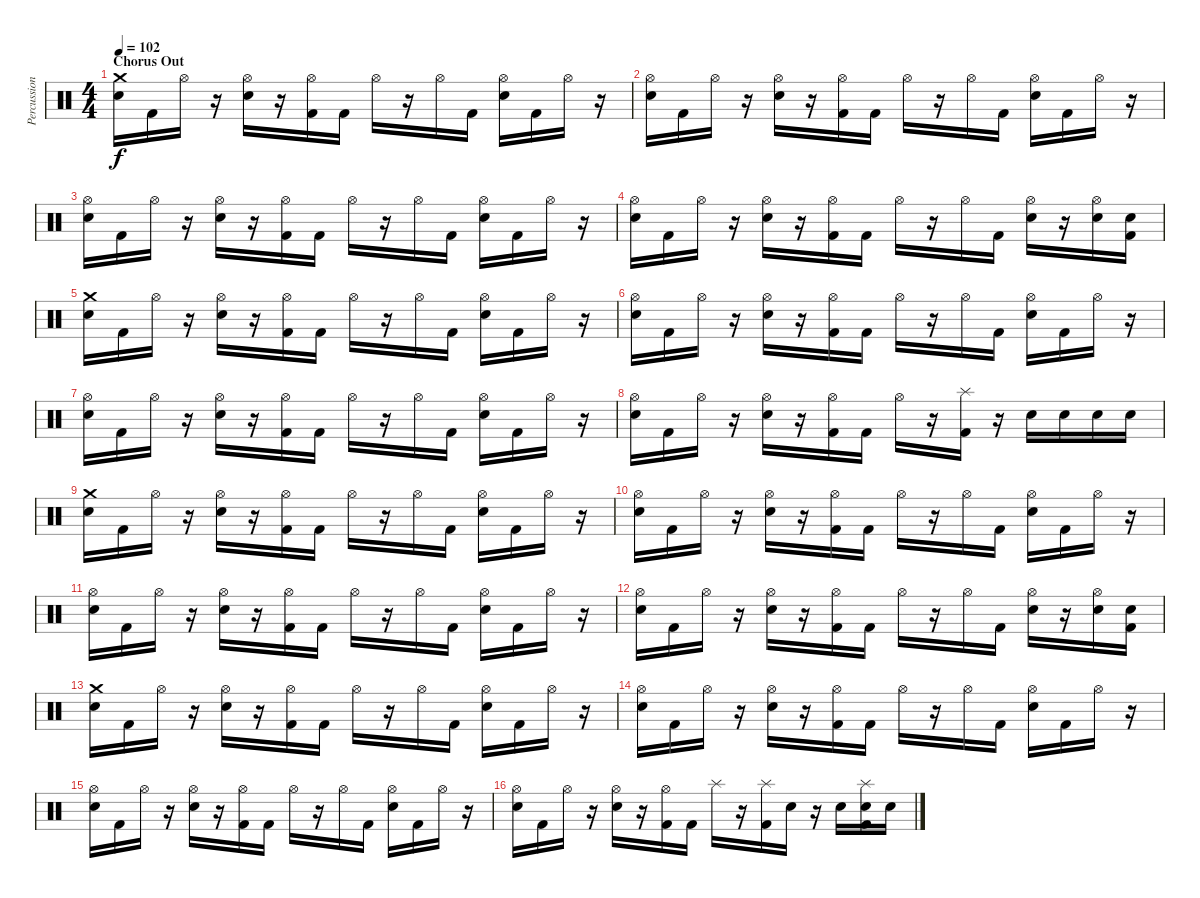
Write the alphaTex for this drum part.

\track ("Percussion" "Percussion") {instrument percussion}
\staff {score}
\articulation defaults
\ts (4 4)
\section ("" "Chorus Out")
\tempo 102
\clef neutral
\ks c
("Crash medium (hit)" "Snare (hit) 2").16{dy f} "Kick (hit) 2".16 "Hi-Hat (open)".16 r.16 ("Hi-Hat (open)" "Snare (hit) 2").16 r.16 ("Hi-Hat (open)" "Kick (hit) 2").16 "Kick (hit) 2".16 "Hi-Hat (open)".16 r.16 "Hi-Hat (open)".16 "Kick (hit) 2".16 ("Hi-Hat (open)" "Snare (hit) 2").16 "Kick (hit) 2".16 "Hi-Hat (open)".16 r.16 |
("Hi-Hat (open)" "Snare (hit) 2").16 "Kick (hit) 2".16 "Hi-Hat (open)".16 r.16 ("Hi-Hat (open)" "Snare (hit) 2").16 r.16 ("Hi-Hat (open)" "Kick (hit) 2").16 "Kick (hit) 2".16 "Hi-Hat (open)".16 r.16 "Hi-Hat (open)".16 "Kick (hit) 2".16 ("Hi-Hat (open)" "Snare (hit) 2").16 "Kick (hit) 2".16 "Hi-Hat (open)".16 r.16 |
("Hi-Hat (open)" "Snare (hit) 2").16 "Kick (hit) 2".16 "Hi-Hat (open)".16 r.16 ("Hi-Hat (open)" "Snare (hit) 2").16 r.16 ("Hi-Hat (open)" "Kick (hit) 2").16 "Kick (hit) 2".16 "Hi-Hat (open)".16 r.16 "Hi-Hat (open)".16 "Kick (hit) 2".16 ("Hi-Hat (open)" "Snare (hit) 2").16 "Kick (hit) 2".16 "Hi-Hat (open)".16 r.16 |
("Hi-Hat (open)" "Snare (hit) 2").16 "Kick (hit) 2".16 "Hi-Hat (open)".16 r.16 ("Hi-Hat (open)" "Snare (hit) 2").16 r.16 ("Hi-Hat (open)" "Kick (hit) 2").16 "Kick (hit) 2".16 "Hi-Hat (open)".16 r.16 "Hi-Hat (open)".16 "Kick (hit) 2".16 ("Hi-Hat (open)" "Snare (hit) 2").16 r.16 ("Hi-Hat (open)" "Snare (hit) 2").16 ("Snare (hit) 2" "Kick (hit) 2").16 |
("Crash medium (hit)" "Snare (hit) 2").16 "Kick (hit) 2".16 "Hi-Hat (open)".16 r.16 ("Hi-Hat (open)" "Snare (hit) 2").16 r.16 ("Hi-Hat (open)" "Kick (hit) 2").16 "Kick (hit) 2".16 "Hi-Hat (open)".16 r.16 "Hi-Hat (open)".16 "Kick (hit) 2".16 ("Hi-Hat (open)" "Snare (hit) 2").16 "Kick (hit) 2".16 "Hi-Hat (open)".16 r.16 |
("Hi-Hat (open)" "Snare (hit) 2").16 "Kick (hit) 2".16 "Hi-Hat (open)".16 r.16 ("Hi-Hat (open)" "Snare (hit) 2").16 r.16 ("Hi-Hat (open)" "Kick (hit) 2").16 "Kick (hit) 2".16 "Hi-Hat (open)".16 r.16 "Hi-Hat (open)".16 "Kick (hit) 2".16 ("Hi-Hat (open)" "Snare (hit) 2").16 "Kick (hit) 2".16 "Hi-Hat (open)".16 r.16 |
("Hi-Hat (open)" "Snare (hit) 2").16 "Kick (hit) 2".16 "Hi-Hat (open)".16 r.16 ("Hi-Hat (open)" "Snare (hit) 2").16 r.16 ("Hi-Hat (open)" "Kick (hit) 2").16 "Kick (hit) 2".16 "Hi-Hat (open)".16 r.16 "Hi-Hat (open)".16 "Kick (hit) 2".16 ("Hi-Hat (open)" "Snare (hit) 2").16 "Kick (hit) 2".16 "Hi-Hat (open)".16 r.16 |
("Hi-Hat (open)" "Snare (hit) 2").16 "Kick (hit) 2".16 "Hi-Hat (open)".16 r.16 ("Hi-Hat (open)" "Snare (hit) 2").16 r.16 ("Hi-Hat (open)" "Kick (hit) 2").16 "Kick (hit) 2".16 "Hi-Hat (open)".16 r.16 ("Splash (hit)" "Kick (hit) 2").16 r.16 "Snare (hit) 2".16 "Snare (hit) 2".16 "Snare (hit) 2".16 "Snare (hit) 2".16 |
("Crash medium (hit)" "Snare (hit) 2").16 "Kick (hit) 2".16 "Hi-Hat (open)".16 r.16 ("Hi-Hat (open)" "Snare (hit) 2").16 r.16 ("Hi-Hat (open)" "Kick (hit) 2").16 "Kick (hit) 2".16 "Hi-Hat (open)".16 r.16 "Hi-Hat (open)".16 "Kick (hit) 2".16 ("Hi-Hat (open)" "Snare (hit) 2").16 "Kick (hit) 2".16 "Hi-Hat (open)".16 r.16 |
("Hi-Hat (open)" "Snare (hit) 2").16 "Kick (hit) 2".16 "Hi-Hat (open)".16 r.16 ("Hi-Hat (open)" "Snare (hit) 2").16 r.16 ("Hi-Hat (open)" "Kick (hit) 2").16 "Kick (hit) 2".16 "Hi-Hat (open)".16 r.16 "Hi-Hat (open)".16 "Kick (hit) 2".16 ("Hi-Hat (open)" "Snare (hit) 2").16 "Kick (hit) 2".16 "Hi-Hat (open)".16 r.16 |
("Hi-Hat (open)" "Snare (hit) 2").16 "Kick (hit) 2".16 "Hi-Hat (open)".16 r.16 ("Hi-Hat (open)" "Snare (hit) 2").16 r.16 ("Hi-Hat (open)" "Kick (hit) 2").16 "Kick (hit) 2".16 "Hi-Hat (open)".16 r.16 "Hi-Hat (open)".16 "Kick (hit) 2".16 ("Hi-Hat (open)" "Snare (hit) 2").16 "Kick (hit) 2".16 "Hi-Hat (open)".16 r.16 |
("Hi-Hat (open)" "Snare (hit) 2").16 "Kick (hit) 2".16 "Hi-Hat (open)".16 r.16 ("Hi-Hat (open)" "Snare (hit) 2").16 r.16 ("Hi-Hat (open)" "Kick (hit) 2").16 "Kick (hit) 2".16 "Hi-Hat (open)".16 r.16 "Hi-Hat (open)".16 "Kick (hit) 2".16 ("Hi-Hat (open)" "Snare (hit) 2").16 r.16 ("Hi-Hat (open)" "Snare (hit) 2").16 ("Snare (hit) 2" "Kick (hit) 2").16 |
("Crash medium (hit)" "Snare (hit) 2").16 "Kick (hit) 2".16 "Hi-Hat (open)".16 r.16 ("Hi-Hat (open)" "Snare (hit) 2").16 r.16 ("Hi-Hat (open)" "Kick (hit) 2").16 "Kick (hit) 2".16 "Hi-Hat (open)".16 r.16 "Hi-Hat (open)".16 "Kick (hit) 2".16 ("Hi-Hat (open)" "Snare (hit) 2").16 "Kick (hit) 2".16 "Hi-Hat (open)".16 r.16 |
("Hi-Hat (open)" "Snare (hit) 2").16 "Kick (hit) 2".16 "Hi-Hat (open)".16 r.16 ("Hi-Hat (open)" "Snare (hit) 2").16 r.16 ("Hi-Hat (open)" "Kick (hit) 2").16 "Kick (hit) 2".16 "Hi-Hat (open)".16 r.16 "Hi-Hat (open)".16 "Kick (hit) 2".16 ("Hi-Hat (open)" "Snare (hit) 2").16 "Kick (hit) 2".16 "Hi-Hat (open)".16 r.16 |
("Hi-Hat (open)" "Snare (hit) 2").16 "Kick (hit) 2".16 "Hi-Hat (open)".16 r.16 ("Hi-Hat (open)" "Snare (hit) 2").16 r.16 ("Hi-Hat (open)" "Kick (hit) 2").16 "Kick (hit) 2".16 "Hi-Hat (open)".16 r.16 "Hi-Hat (open)".16 "Kick (hit) 2".16 ("Hi-Hat (open)" "Snare (hit) 2").16 "Kick (hit) 2".16 "Hi-Hat (open)".16 r.16 |
("Hi-Hat (open)" "Snare (hit) 2").16 "Kick (hit) 2".16 "Hi-Hat (open)".16 r.16 ("Hi-Hat (open)" "Snare (hit) 2").16 r.16 ("Hi-Hat (open)" "Kick (hit) 2").16 "Kick (hit) 2".16 "Splash (hit)".16 r.16 ("Splash (hit)" "Kick (hit) 2").16 "Snare (hit) 2".16 r.16 "Snare (hit) 2".16 ("Splash (hit)" "Snare (hit) 2" "Kick (hit) 2").16 "Snare (hit) 2".16
